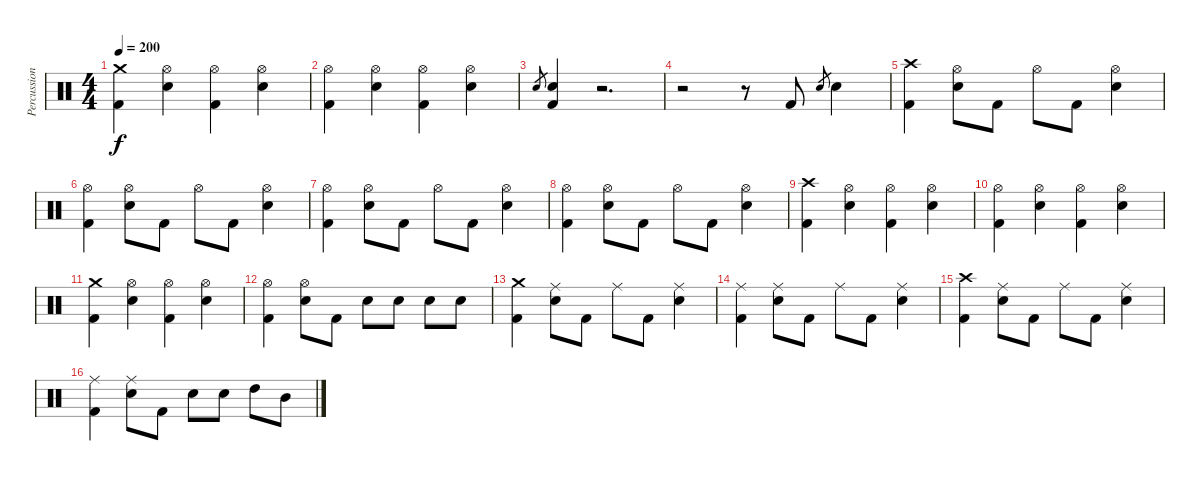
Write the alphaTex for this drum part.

\track ("Percussioni" "Percussion") {instrument percussion}
\staff {score}
\articulation defaults
\ts (4 4)
\tempo 200
\clef neutral
\ks c
("Crash medium (hit)" "Kick (hit) 2").4{dy f} ("Hi-Hat (open)" "Electric Snare (hit)").4 ("Hi-Hat (open)" "Kick (hit) 2").4 ("Hi-Hat (open)" "Electric Snare (hit)").4 |
("Hi-Hat (open)" "Kick (hit) 2").4 ("Hi-Hat (open)" "Electric Snare (hit)").4 ("Hi-Hat (open)" "Kick (hit) 2").4 ("Hi-Hat (open)" "Electric Snare (hit)").4 |
"Electric Snare (hit)".8{gr} ("Electric Snare (hit)" "Kick (hit) 2").4 r.2{d} |
r.2 r.8 "Kick (hit) 2".8 "Electric Snare (hit)".8{gr} "Electric Snare (hit)".4 |
("Crash high (hit)" "Kick (hit) 2").4 ("Hi-Hat (open)" "Electric Snare (hit)").8 "Kick (hit) 2".8 "Hi-Hat (open)".8 "Kick (hit) 2".8 ("Hi-Hat (open)" "Electric Snare (hit)").4 |
("Hi-Hat (open)" "Kick (hit) 2").4 ("Hi-Hat (open)" "Electric Snare (hit)").8 "Kick (hit) 2".8 "Hi-Hat (open)".8 "Kick (hit) 2".8 ("Hi-Hat (open)" "Electric Snare (hit)").4 |
("Hi-Hat (open)" "Kick (hit) 2").4 ("Hi-Hat (open)" "Electric Snare (hit)").8 "Kick (hit) 2".8 "Hi-Hat (open)".8 "Kick (hit) 2".8 ("Hi-Hat (open)" "Electric Snare (hit)").4 |
("Hi-Hat (open)" "Kick (hit) 2").4 ("Hi-Hat (open)" "Electric Snare (hit)").8 "Kick (hit) 2".8 "Hi-Hat (open)".8 "Kick (hit) 2".8 ("Hi-Hat (open)" "Electric Snare (hit)").4 |
("Crash high (hit)" "Kick (hit) 2").4 ("Hi-Hat (open)" "Electric Snare (hit)").4 ("Hi-Hat (open)" "Kick (hit) 2").4 ("Hi-Hat (open)" "Electric Snare (hit)").4 |
("Hi-Hat (open)" "Kick (hit) 2").4 ("Hi-Hat (open)" "Electric Snare (hit)").4 ("Hi-Hat (open)" "Kick (hit) 2").4 ("Hi-Hat (open)" "Electric Snare (hit)").4 |
("Crash medium (hit)" "Kick (hit) 2").4 ("Hi-Hat (open)" "Electric Snare (hit)").4 ("Hi-Hat (open)" "Kick (hit) 2").4 ("Hi-Hat (open)" "Electric Snare (hit)").4 |
("Hi-Hat (open)" "Kick (hit) 2").4 ("Hi-Hat (open)" "Electric Snare (hit)").8 "Kick (hit) 2".8 "Electric Snare (hit)".8 "Electric Snare (hit)".8 "Electric Snare (hit)".8 "Electric Snare (hit)".8 |
("Crash medium (hit)" "Kick (hit) 2").4 ("Ride (middle)" "Electric Snare (hit)").8 "Kick (hit) 2".8 "Ride (middle)".8 "Kick (hit) 2".8 ("Ride (middle)" "Electric Snare (hit)").4 |
("Ride (middle)" "Kick (hit) 2").4 ("Ride (middle)" "Electric Snare (hit)").8 "Kick (hit) 2".8 "Ride (middle)".8 "Kick (hit) 2".8 ("Ride (middle)" "Electric Snare (hit)").4 |
("Crash high (hit)" "Kick (hit) 2").4 ("Ride (middle)" "Electric Snare (hit)").8 "Kick (hit) 2".8 "Ride (middle)".8 "Kick (hit) 2".8 ("Ride (middle)" "Electric Snare (hit)").4 |
("Ride (middle)" "Kick (hit) 2").4 ("Ride (middle)" "Electric Snare (hit)").8 "Kick (hit) 2".8 "Electric Snare (hit)".8 "Electric Snare (hit)".8 "High Tom (hit)".8 "Mid Tom (hit)".8
